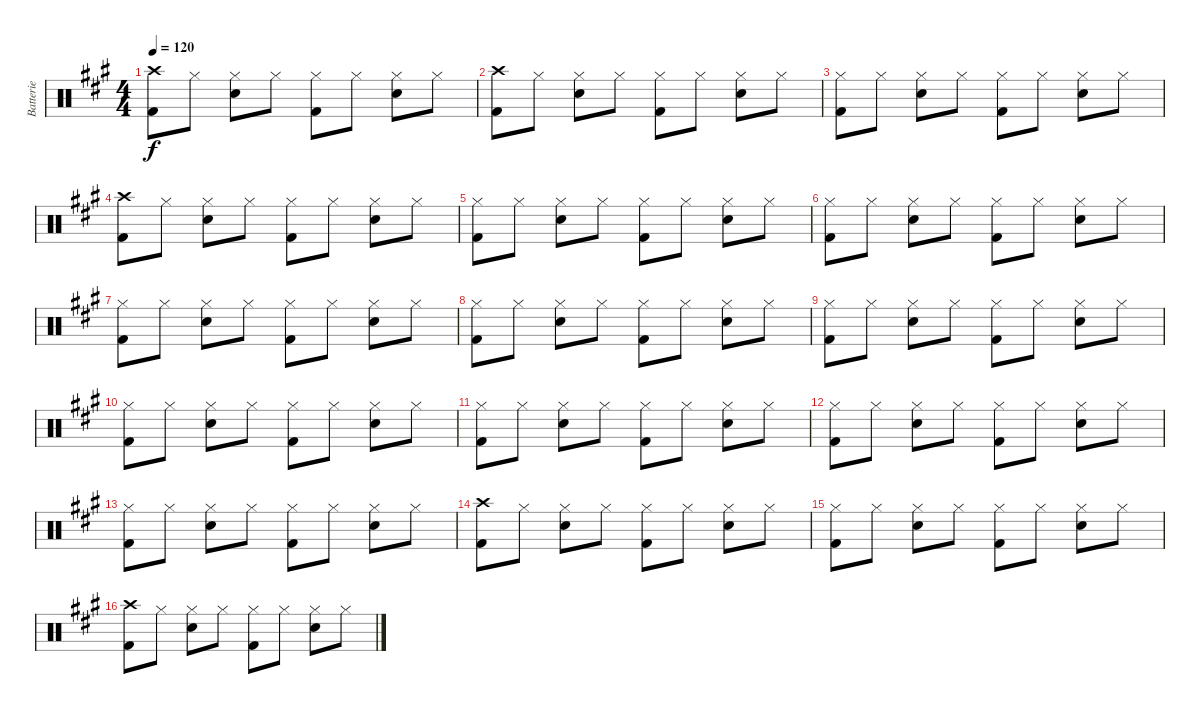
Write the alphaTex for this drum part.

\track ("Batterie" "Batterie") {instrument percussion}
\staff {score}
\articulation defaults
\ts (4 4)
\tempo 120
\clef neutral
\ks a
("Crash high (hit)" "Kick (hit) 2").8{dy f} "Hi-Hat (closed)".8 ("Hi-Hat (closed)" "Snare (hit) 2").8 "Hi-Hat (closed)".8 ("Hi-Hat (closed)" "Kick (hit) 2").8 "Hi-Hat (closed)".8 ("Hi-Hat (closed)" "Snare (hit) 2").8 "Hi-Hat (closed)".8 |
("Crash high (hit)" "Kick (hit) 2").8 "Hi-Hat (closed)".8 ("Hi-Hat (closed)" "Snare (hit) 2").8 "Hi-Hat (closed)".8 ("Hi-Hat (closed)" "Kick (hit) 2").8 "Hi-Hat (closed)".8 ("Hi-Hat (closed)" "Snare (hit) 2").8 "Hi-Hat (closed)".8 |
("Hi-Hat (closed)" "Kick (hit) 2").8 "Hi-Hat (closed)".8 ("Hi-Hat (closed)" "Snare (hit) 2").8 "Hi-Hat (closed)".8 ("Hi-Hat (closed)" "Kick (hit) 2").8 "Hi-Hat (closed)".8 ("Hi-Hat (closed)" "Snare (hit) 2").8 "Hi-Hat (closed)".8 |
("Crash high (hit)" "Kick (hit) 2").8 "Hi-Hat (closed)".8 ("Hi-Hat (closed)" "Snare (hit) 2").8 "Hi-Hat (closed)".8 ("Hi-Hat (closed)" "Kick (hit) 2").8 "Hi-Hat (closed)".8 ("Hi-Hat (closed)" "Snare (hit) 2").8 "Hi-Hat (closed)".8 |
("Hi-Hat (closed)" "Kick (hit) 2").8 "Hi-Hat (closed)".8 ("Hi-Hat (closed)" "Snare (hit) 2").8 "Hi-Hat (closed)".8 ("Hi-Hat (closed)" "Kick (hit) 2").8 "Hi-Hat (closed)".8 ("Hi-Hat (closed)" "Snare (hit) 2").8 "Hi-Hat (closed)".8 |
("Hi-Hat (closed)" "Kick (hit) 2").8 "Hi-Hat (closed)".8 ("Hi-Hat (closed)" "Snare (hit) 2").8 "Hi-Hat (closed)".8 ("Hi-Hat (closed)" "Kick (hit) 2").8 "Hi-Hat (closed)".8 ("Hi-Hat (closed)" "Snare (hit) 2").8 "Hi-Hat (closed)".8 |
("Hi-Hat (closed)" "Kick (hit) 2").8 "Hi-Hat (closed)".8 ("Hi-Hat (closed)" "Snare (hit) 2").8 "Hi-Hat (closed)".8 ("Hi-Hat (closed)" "Kick (hit) 2").8 "Hi-Hat (closed)".8 ("Hi-Hat (closed)" "Snare (hit) 2").8 "Hi-Hat (closed)".8 |
("Hi-Hat (closed)" "Kick (hit) 2").8 "Hi-Hat (closed)".8 ("Hi-Hat (closed)" "Snare (hit) 2").8 "Hi-Hat (closed)".8 ("Hi-Hat (closed)" "Kick (hit) 2").8 "Hi-Hat (closed)".8 ("Hi-Hat (closed)" "Snare (hit) 2").8 "Hi-Hat (closed)".8 |
("Hi-Hat (closed)" "Kick (hit) 2").8 "Hi-Hat (closed)".8 ("Hi-Hat (closed)" "Snare (hit) 2").8 "Hi-Hat (closed)".8 ("Hi-Hat (closed)" "Kick (hit) 2").8 "Hi-Hat (closed)".8 ("Hi-Hat (closed)" "Snare (hit) 2").8 "Hi-Hat (closed)".8 |
("Hi-Hat (closed)" "Kick (hit) 2").8 "Hi-Hat (closed)".8 ("Hi-Hat (closed)" "Snare (hit) 2").8 "Hi-Hat (closed)".8 ("Hi-Hat (closed)" "Kick (hit) 2").8 "Hi-Hat (closed)".8 ("Hi-Hat (closed)" "Snare (hit) 2").8 "Hi-Hat (closed)".8 |
("Hi-Hat (closed)" "Kick (hit) 2").8 "Hi-Hat (closed)".8 ("Hi-Hat (closed)" "Snare (hit) 2").8 "Hi-Hat (closed)".8 ("Hi-Hat (closed)" "Kick (hit) 2").8 "Hi-Hat (closed)".8 ("Hi-Hat (closed)" "Snare (hit) 2").8 "Hi-Hat (closed)".8 |
("Hi-Hat (closed)" "Kick (hit) 2").8 "Hi-Hat (closed)".8 ("Hi-Hat (closed)" "Snare (hit) 2").8 "Hi-Hat (closed)".8 ("Hi-Hat (closed)" "Kick (hit) 2").8 "Hi-Hat (closed)".8 ("Hi-Hat (closed)" "Snare (hit) 2").8 "Hi-Hat (closed)".8 |
("Hi-Hat (closed)" "Kick (hit) 2").8 "Hi-Hat (closed)".8 ("Hi-Hat (closed)" "Snare (hit) 2").8 "Hi-Hat (closed)".8 ("Hi-Hat (closed)" "Kick (hit) 2").8 "Hi-Hat (closed)".8 ("Hi-Hat (closed)" "Snare (hit) 2").8 "Hi-Hat (closed)".8 |
("Crash high (hit)" "Kick (hit) 2").8 "Hi-Hat (closed)".8 ("Hi-Hat (closed)" "Snare (hit) 2").8 "Hi-Hat (closed)".8 ("Hi-Hat (closed)" "Kick (hit) 2").8 "Hi-Hat (closed)".8 ("Hi-Hat (closed)" "Snare (hit) 2").8 "Hi-Hat (closed)".8 |
("Hi-Hat (closed)" "Kick (hit) 2").8 "Hi-Hat (closed)".8 ("Hi-Hat (closed)" "Snare (hit) 2").8 "Hi-Hat (closed)".8 ("Hi-Hat (closed)" "Kick (hit) 2").8 "Hi-Hat (closed)".8 ("Hi-Hat (closed)" "Snare (hit) 2").8 "Hi-Hat (closed)".8 |
("Crash high (hit)" "Kick (hit) 2").8 "Hi-Hat (closed)".8 ("Hi-Hat (closed)" "Snare (hit) 2").8 "Hi-Hat (closed)".8 ("Hi-Hat (closed)" "Kick (hit) 2").8 "Hi-Hat (closed)".8 ("Hi-Hat (closed)" "Snare (hit) 2").8 "Hi-Hat (closed)".8
